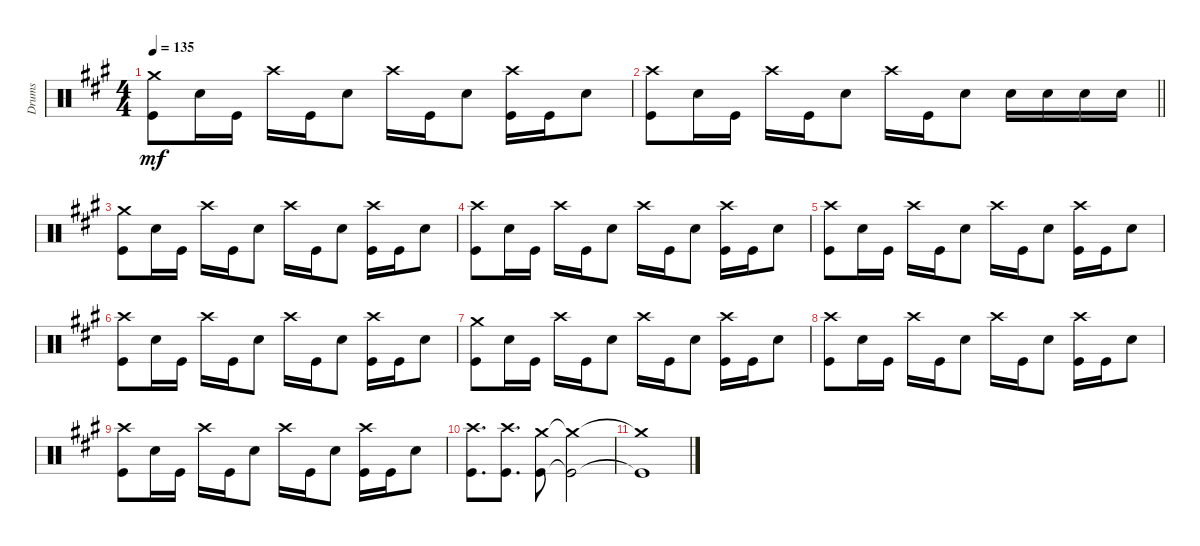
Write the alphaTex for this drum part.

\track ("Drums" "Drums") {instrument percussion}
\staff {score}
\articulation defaults
\ts (4 4)
\tempo 135
\clef neutral
\ks a
("Kick (hit)" "Crash medium (hit)").8{dy mf} "Snare (hit) 2".16 "Kick (hit)".16 "Crash high (hit)".16 "Kick (hit)".16 "Snare (hit) 2".8 "Crash high (hit)".16 "Kick (hit)".16 "Snare (hit) 2".8 ("Kick (hit)" "Crash high (hit)").16 "Kick (hit)".16 "Snare (hit) 2".8 |
\barLineRight lightlight
("Kick (hit)" "Crash high (hit)").8 "Snare (hit) 2".16 "Kick (hit)".16 "Crash high (hit)".16 "Kick (hit)".16 "Snare (hit) 2".8 "Crash high (hit)".16 "Kick (hit)".16 "Snare (hit) 2".8 "Snare (hit) 2".16 "Snare (hit) 2".16 "Snare (hit) 2".16 "Snare (hit) 2".16 |
("Kick (hit)" "Crash medium (hit)").8 "Snare (hit) 2".16 "Kick (hit)".16 "Crash high (hit)".16 "Kick (hit)".16 "Snare (hit) 2".8 "Crash high (hit)".16 "Kick (hit)".16 "Snare (hit) 2".8 ("Kick (hit)" "Crash high (hit)").16 "Kick (hit)".16 "Snare (hit) 2".8 |
("Kick (hit)" "Crash high (hit)").8 "Snare (hit) 2".16 "Kick (hit)".16 "Crash high (hit)".16 "Kick (hit)".16 "Snare (hit) 2".8 "Crash high (hit)".16 "Kick (hit)".16 "Snare (hit) 2".8 ("Kick (hit)" "Crash high (hit)").16 "Kick (hit)".16 "Snare (hit) 2".8 |
("Kick (hit)" "Crash high (hit)").8 "Snare (hit) 2".16 "Kick (hit)".16 "Crash high (hit)".16 "Kick (hit)".16 "Snare (hit) 2".8 "Crash high (hit)".16 "Kick (hit)".16 "Snare (hit) 2".8 ("Kick (hit)" "Crash high (hit)").16 "Kick (hit)".16 "Snare (hit) 2".8 |
("Kick (hit)" "Crash high (hit)").8 "Snare (hit) 2".16 "Kick (hit)".16 "Crash high (hit)".16 "Kick (hit)".16 "Snare (hit) 2".8 "Crash high (hit)".16 "Kick (hit)".16 "Snare (hit) 2".8 ("Kick (hit)" "Crash high (hit)").16 "Kick (hit)".16 "Snare (hit) 2".8 |
("Kick (hit)" "Crash medium (hit)").8 "Snare (hit) 2".16 "Kick (hit)".16 "Crash high (hit)".16 "Kick (hit)".16 "Snare (hit) 2".8 "Crash high (hit)".16 "Kick (hit)".16 "Snare (hit) 2".8 ("Kick (hit)" "Crash high (hit)").16 "Kick (hit)".16 "Snare (hit) 2".8 |
("Kick (hit)" "Crash high (hit)").8 "Snare (hit) 2".16 "Kick (hit)".16 "Crash high (hit)".16 "Kick (hit)".16 "Snare (hit) 2".8 "Crash high (hit)".16 "Kick (hit)".16 "Snare (hit) 2".8 ("Kick (hit)" "Crash high (hit)").16 "Kick (hit)".16 "Snare (hit) 2".8 |
("Kick (hit)" "Crash high (hit)").8 "Snare (hit) 2".16 "Kick (hit)".16 "Crash high (hit)".16 "Kick (hit)".16 "Snare (hit) 2".8 "Crash high (hit)".16 "Kick (hit)".16 "Snare (hit) 2".8 ("Kick (hit)" "Crash high (hit)").16 "Kick (hit)".16 "Snare (hit) 2".8 |
("Kick (hit)" "Crash high (hit)").8{d} ("Kick (hit)" "Crash high (hit)").8{d} ("Kick (hit)" "Crash medium (hit)").8 ("Kick (hit)"{t} "Crash medium (hit)"{t}).2 |
("Kick (hit)"{t} "Crash medium (hit)"{t}).1
